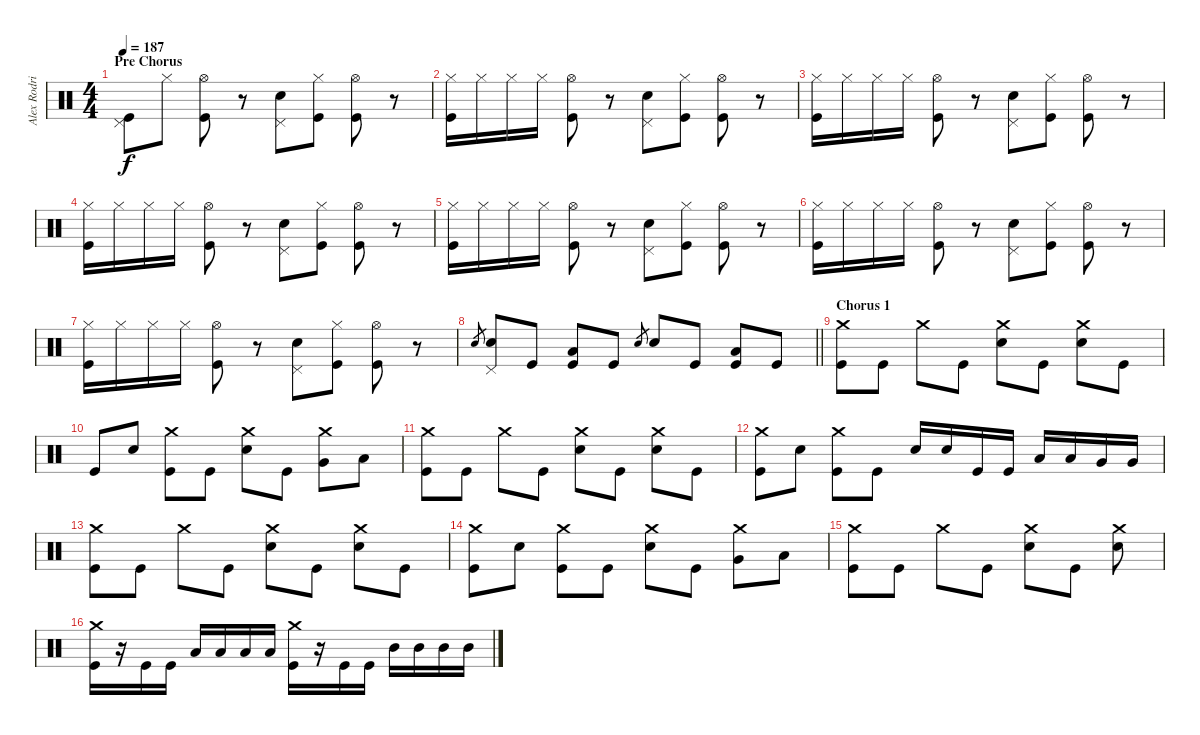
\track ("Alex Rodriguez" "Alex Rodri") {instrument percussion}
\staff {score}
\articulation defaults
\ts (4 4)
\section ("" "Pre Chorus")
\tempo 187
\clef neutral
\ks c
("Pedal Hi-Hat (hit)" "Kick (hit)").8{dy f} "Hi-Hat (closed)".8 ("Hi-Hat (open)" "Kick (hit)").8 r.8 ("Pedal Hi-Hat (hit)" "Electric Snare (hit)").8 ("Hi-Hat (closed)" "Kick (hit)").8 ("Hi-Hat (open)" "Kick (hit)").8 r.8 |
("Hi-Hat (closed)" "Kick (hit)").16 "Hi-Hat (closed)".16 "Hi-Hat (closed)".16 "Hi-Hat (closed)".16 ("Hi-Hat (open)" "Kick (hit)").8 r.8 ("Pedal Hi-Hat (hit)" "Electric Snare (hit)").8 ("Hi-Hat (closed)" "Kick (hit)").8 ("Hi-Hat (open)" "Kick (hit)").8 r.8 |
("Hi-Hat (closed)" "Kick (hit)").16 "Hi-Hat (closed)".16 "Hi-Hat (closed)".16 "Hi-Hat (closed)".16 ("Hi-Hat (open)" "Kick (hit)").8 r.8 ("Pedal Hi-Hat (hit)" "Electric Snare (hit)").8 ("Hi-Hat (closed)" "Kick (hit)").8 ("Hi-Hat (open)" "Kick (hit)").8 r.8 |
("Hi-Hat (closed)" "Kick (hit)").16 "Hi-Hat (closed)".16 "Hi-Hat (closed)".16 "Hi-Hat (closed)".16 ("Hi-Hat (open)" "Kick (hit)").8 r.8 ("Pedal Hi-Hat (hit)" "Electric Snare (hit)").8 ("Hi-Hat (closed)" "Kick (hit)").8 ("Hi-Hat (open)" "Kick (hit)").8 r.8 |
("Hi-Hat (closed)" "Kick (hit)").16 "Hi-Hat (closed)".16 "Hi-Hat (closed)".16 "Hi-Hat (closed)".16 ("Hi-Hat (open)" "Kick (hit)").8 r.8 ("Pedal Hi-Hat (hit)" "Electric Snare (hit)").8 ("Hi-Hat (closed)" "Kick (hit)").8 ("Hi-Hat (open)" "Kick (hit)").8 r.8 |
("Hi-Hat (closed)" "Kick (hit)").16 "Hi-Hat (closed)".16 "Hi-Hat (closed)".16 "Hi-Hat (closed)".16 ("Hi-Hat (open)" "Kick (hit)").8 r.8 ("Pedal Hi-Hat (hit)" "Electric Snare (hit)").8 ("Hi-Hat (closed)" "Kick (hit)").8 ("Hi-Hat (open)" "Kick (hit)").8 r.8 |
("Hi-Hat (closed)" "Kick (hit)").16 "Hi-Hat (closed)".16 "Hi-Hat (closed)".16 "Hi-Hat (closed)".16 ("Hi-Hat (open)" "Kick (hit)").8 r.8 ("Pedal Hi-Hat (hit)" "Electric Snare (hit)").8 ("Hi-Hat (closed)" "Kick (hit)").8 ("Hi-Hat (open)" "Kick (hit)").8 r.8 |
\barLineRight lightlight "Electric Snare (hit)".8{gr}
("Pedal Hi-Hat (hit)" "Electric Snare (hit)").8 "Kick (hit)".8 ("Low Tom (hit)" "Kick (hit)").8 "Kick (hit)".8 "Electric Snare (hit)".8{gr} "Electric Snare (hit)".8 "Kick (hit)".8 ("Low Tom (hit)" "Kick (hit)").8 "Kick (hit)".8 |
\section ("" "Chorus 1")
("Crash medium (hit)" "Kick (hit)").8 "Kick (hit)".8 "Crash medium (hit)".8 "Kick (hit)".8 ("Crash medium (hit)" "Electric Snare (hit)").8 "Kick (hit)".8 ("Crash medium (hit)" "Electric Snare (hit)").8 "Kick (hit)".8 |
"Kick (hit)".8 "Electric Snare (hit)".8 ("Crash medium (hit)" "Kick (hit)").8 "Kick (hit)".8 ("Crash medium (hit)" "Electric Snare (hit)").8 "Kick (hit)".8 ("Crash medium (hit)" "Very Low Tom (hit)").8 "Low Floor Tom (hit)".8 |
("Crash medium (hit)" "Kick (hit)").8 "Kick (hit)".8 "Crash medium (hit)".8 "Kick (hit)".8 ("Crash medium (hit)" "Electric Snare (hit)").8 "Kick (hit)".8 ("Crash medium (hit)" "Electric Snare (hit)").8 "Kick (hit)".8 |
("Crash medium (hit)" "Kick (hit)").8 "Electric Snare (hit)".8 ("Crash medium (hit)" "Kick (hit)").8 "Kick (hit)".8 "Electric Snare (hit)".16 "Electric Snare (hit)".16 "Kick (hit)".16 "Kick (hit)".16 "Low Tom (hit)".16 "Low Tom (hit)".16 "Very Low Tom (hit)".16 "Very Low Tom (hit)".16 |
("Crash medium (hit)" "Kick (hit)").8 "Kick (hit)".8 "Crash medium (hit)".8 "Kick (hit)".8 ("Crash medium (hit)" "Electric Snare (hit)").8 "Kick (hit)".8 ("Crash medium (hit)" "Electric Snare (hit)").8 "Kick (hit)".8 |
("Crash medium (hit)" "Kick (hit)").8 "Electric Snare (hit)".8 ("Crash medium (hit)" "Kick (hit)").8 "Kick (hit)".8 ("Crash medium (hit)" "Electric Snare (hit)").8 "Kick (hit)".8 ("Crash medium (hit)" "Very Low Tom (hit)").8 "Low Floor Tom (hit)".8 |
("Crash medium (hit)" "Kick (hit)").8 "Kick (hit)".8 "Crash medium (hit)".8 "Kick (hit)".8 ("Crash medium (hit)" "Electric Snare (hit)").8 "Kick (hit)".8 ("Crash medium (hit)" "Electric Snare (hit)").8 |
("Crash medium (hit)" "Kick (hit)").16 r.16 "Kick (hit)".16 "Kick (hit)".16 "Low Tom (hit)".16 "Low Tom (hit)".16 "Low Tom (hit)".16 "Low Tom (hit)".16 ("Crash medium (hit)" "Kick (hit)").16 r.16 "Kick (hit)".16 "Kick (hit)".16 "Mid Tom (hit)".16 "Mid Tom (hit)".16 "Mid Tom (hit)".16 "Mid Tom (hit)".16
